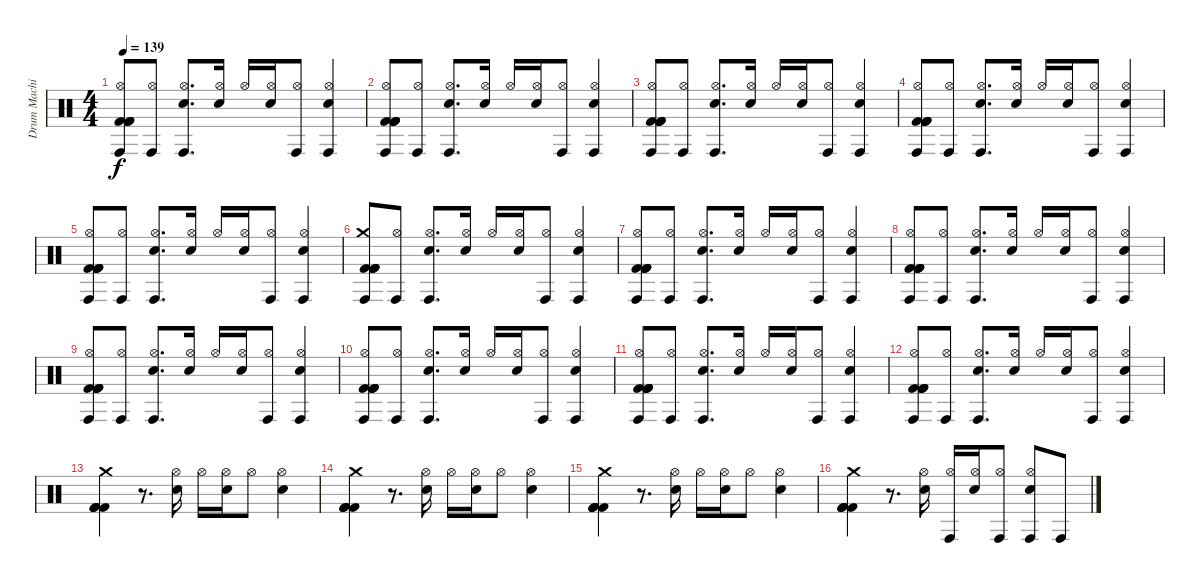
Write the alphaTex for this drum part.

\track ("Drum Machine" "Drum Machi") {instrument percussion}
\staff {score}
\articulation defaults
\ts (4 4)
\tempo 139
\clef neutral
\ks c
("Conga high (hit)" "Hi-Hat (open)" "Kick (hit) 2" "Kick (hit) 2" "Kick (hit) 2" "Kick (hit) 2").8{dy f} ("Conga high (hit)" "Hi-Hat (open)").8 ("Conga high (hit)" "Hi-Hat (open)" "Electric Snare (hit)").8{d} ("Hi-Hat (open)" "Electric Snare (hit)").16 "Hi-Hat (open)".16 ("Hi-Hat (open)" "Electric Snare (hit)").16 ("Conga high (hit)" "Hi-Hat (open)").8 ("Conga high (hit)" "Hi-Hat (open)" "Electric Snare (hit)").4 |
("Conga high (hit)" "Hi-Hat (open)" "Kick (hit) 2" "Kick (hit) 2" "Kick (hit) 2" "Kick (hit) 2").8 ("Conga high (hit)" "Hi-Hat (open)").8 ("Conga high (hit)" "Hi-Hat (open)" "Electric Snare (hit)").8{d} ("Hi-Hat (open)" "Electric Snare (hit)").16 "Hi-Hat (open)".16 ("Hi-Hat (open)" "Electric Snare (hit)").16 ("Conga high (hit)" "Hi-Hat (open)").8 ("Conga high (hit)" "Hi-Hat (open)" "Electric Snare (hit)").4 |
("Conga high (hit)" "Hi-Hat (open)" "Kick (hit) 2" "Kick (hit) 2" "Kick (hit) 2" "Kick (hit) 2").8 ("Conga high (hit)" "Hi-Hat (open)").8 ("Conga high (hit)" "Hi-Hat (open)" "Electric Snare (hit)").8{d} ("Hi-Hat (open)" "Electric Snare (hit)").16 "Hi-Hat (open)".16 ("Hi-Hat (open)" "Electric Snare (hit)").16 ("Conga high (hit)" "Hi-Hat (open)").8 ("Conga high (hit)" "Hi-Hat (open)" "Electric Snare (hit)").4 |
("Conga high (hit)" "Hi-Hat (open)" "Kick (hit) 2" "Kick (hit) 2" "Kick (hit) 2" "Kick (hit) 2").8 ("Conga high (hit)" "Hi-Hat (open)").8 ("Conga high (hit)" "Hi-Hat (open)" "Electric Snare (hit)").8{d} ("Hi-Hat (open)" "Electric Snare (hit)").16 "Hi-Hat (open)".16 ("Hi-Hat (open)" "Electric Snare (hit)").16 ("Conga high (hit)" "Hi-Hat (open)").8 ("Conga high (hit)" "Hi-Hat (open)" "Electric Snare (hit)").4 |
("Conga high (hit)" "Hi-Hat (open)" "Kick (hit) 2" "Kick (hit) 2" "Kick (hit) 2" "Kick (hit) 2").8 ("Conga high (hit)" "Hi-Hat (open)").8 ("Conga high (hit)" "Hi-Hat (open)" "Electric Snare (hit)").8{d} ("Hi-Hat (open)" "Electric Snare (hit)").16 "Hi-Hat (open)".16 ("Hi-Hat (open)" "Electric Snare (hit)").16 ("Conga high (hit)" "Hi-Hat (open)").8 ("Conga high (hit)" "Hi-Hat (open)" "Electric Snare (hit)").4 |
("Conga high (hit)" "Crash medium (hit)" "Kick (hit) 2" "Kick (hit) 2" "Kick (hit) 2" "Kick (hit) 2").8 ("Conga high (hit)" "Hi-Hat (open)").8 ("Conga high (hit)" "Hi-Hat (open)" "Electric Snare (hit)").8{d} ("Hi-Hat (open)" "Electric Snare (hit)").16 "Hi-Hat (open)".16 ("Hi-Hat (open)" "Electric Snare (hit)").16 ("Conga high (hit)" "Hi-Hat (open)").8 ("Conga high (hit)" "Hi-Hat (open)" "Electric Snare (hit)").4 |
("Conga high (hit)" "Hi-Hat (open)" "Kick (hit) 2" "Kick (hit) 2" "Kick (hit) 2" "Kick (hit) 2").8 ("Conga high (hit)" "Hi-Hat (open)").8 ("Conga high (hit)" "Hi-Hat (open)" "Electric Snare (hit)").8{d} ("Hi-Hat (open)" "Electric Snare (hit)").16 "Hi-Hat (open)".16 ("Hi-Hat (open)" "Electric Snare (hit)").16 ("Conga high (hit)" "Hi-Hat (open)").8 ("Conga high (hit)" "Hi-Hat (open)" "Electric Snare (hit)").4 |
("Conga high (hit)" "Hi-Hat (open)" "Kick (hit) 2" "Kick (hit) 2" "Kick (hit) 2" "Kick (hit) 2").8 ("Conga high (hit)" "Hi-Hat (open)").8 ("Conga high (hit)" "Hi-Hat (open)" "Electric Snare (hit)").8{d} ("Hi-Hat (open)" "Electric Snare (hit)").16 "Hi-Hat (open)".16 ("Hi-Hat (open)" "Electric Snare (hit)").16 ("Conga high (hit)" "Hi-Hat (open)").8 ("Conga high (hit)" "Hi-Hat (open)" "Electric Snare (hit)").4 |
("Conga high (hit)" "Hi-Hat (open)" "Kick (hit) 2" "Kick (hit) 2" "Kick (hit) 2" "Kick (hit) 2").8 ("Conga high (hit)" "Hi-Hat (open)").8 ("Conga high (hit)" "Hi-Hat (open)" "Electric Snare (hit)").8{d} ("Hi-Hat (open)" "Electric Snare (hit)").16 "Hi-Hat (open)".16 ("Hi-Hat (open)" "Electric Snare (hit)").16 ("Conga high (hit)" "Hi-Hat (open)").8 ("Conga high (hit)" "Hi-Hat (open)" "Electric Snare (hit)").4 |
("Conga high (hit)" "Hi-Hat (open)" "Kick (hit) 2" "Kick (hit) 2" "Kick (hit) 2" "Kick (hit) 2").8 ("Conga high (hit)" "Hi-Hat (open)").8 ("Conga high (hit)" "Hi-Hat (open)" "Electric Snare (hit)").8{d} ("Hi-Hat (open)" "Electric Snare (hit)").16 "Hi-Hat (open)".16 ("Hi-Hat (open)" "Electric Snare (hit)").16 ("Conga high (hit)" "Hi-Hat (open)").8 ("Conga high (hit)" "Hi-Hat (open)" "Electric Snare (hit)").4 |
("Conga high (hit)" "Hi-Hat (open)" "Kick (hit) 2" "Kick (hit) 2" "Kick (hit) 2" "Kick (hit) 2").8 ("Conga high (hit)" "Hi-Hat (open)").8 ("Conga high (hit)" "Hi-Hat (open)" "Electric Snare (hit)").8{d} ("Hi-Hat (open)" "Electric Snare (hit)").16 "Hi-Hat (open)".16 ("Hi-Hat (open)" "Electric Snare (hit)").16 ("Conga high (hit)" "Hi-Hat (open)").8 ("Conga high (hit)" "Hi-Hat (open)" "Electric Snare (hit)").4 |
("Conga high (hit)" "Hi-Hat (open)" "Kick (hit) 2" "Kick (hit) 2" "Kick (hit) 2" "Kick (hit) 2").8 ("Conga high (hit)" "Hi-Hat (open)").8 ("Conga high (hit)" "Hi-Hat (open)" "Electric Snare (hit)").8{d} ("Hi-Hat (open)" "Electric Snare (hit)").16 "Hi-Hat (open)".16 ("Hi-Hat (open)" "Electric Snare (hit)").16 ("Conga high (hit)" "Hi-Hat (open)").8 ("Conga high (hit)" "Hi-Hat (open)" "Electric Snare (hit)").4 |
("Crash medium (hit)" "Kick (hit) 2" "Kick (hit) 2" "Kick (hit) 2" "Kick (hit) 2").4 r.8{d} ("Hi-Hat (open)" "Electric Snare (hit)").16 "Hi-Hat (open)".16 ("Hi-Hat (open)" "Electric Snare (hit)").16 "Hi-Hat (open)".8 ("Hi-Hat (open)" "Electric Snare (hit)").4 |
("Crash medium (hit)" "Kick (hit) 2" "Kick (hit) 2" "Kick (hit) 2" "Kick (hit) 2").4 r.8{d} ("Hi-Hat (open)" "Electric Snare (hit)").16 "Hi-Hat (open)".16 ("Hi-Hat (open)" "Electric Snare (hit)").16 "Hi-Hat (open)".8 ("Hi-Hat (open)" "Electric Snare (hit)").4 |
("Crash medium (hit)" "Kick (hit) 2" "Kick (hit) 2" "Kick (hit) 2" "Kick (hit) 2").4 r.8{d} ("Hi-Hat (open)" "Electric Snare (hit)").16 "Hi-Hat (open)".16 ("Hi-Hat (open)" "Electric Snare (hit)").16 "Hi-Hat (open)".8 ("Hi-Hat (open)" "Electric Snare (hit)").4 |
("Crash medium (hit)" "Kick (hit) 2" "Kick (hit) 2" "Kick (hit) 2" "Kick (hit) 2").4 r.8{d} ("Hi-Hat (open)" "Electric Snare (hit)").16 ("Conga high (hit)" "Hi-Hat (open)").16 ("Hi-Hat (open)" "Electric Snare (hit)").16 ("Conga high (hit)" "Hi-Hat (open)").8 ("Conga high (hit)" "Hi-Hat (open)" "Electric Snare (hit)").8 "Conga high (hit)".8
